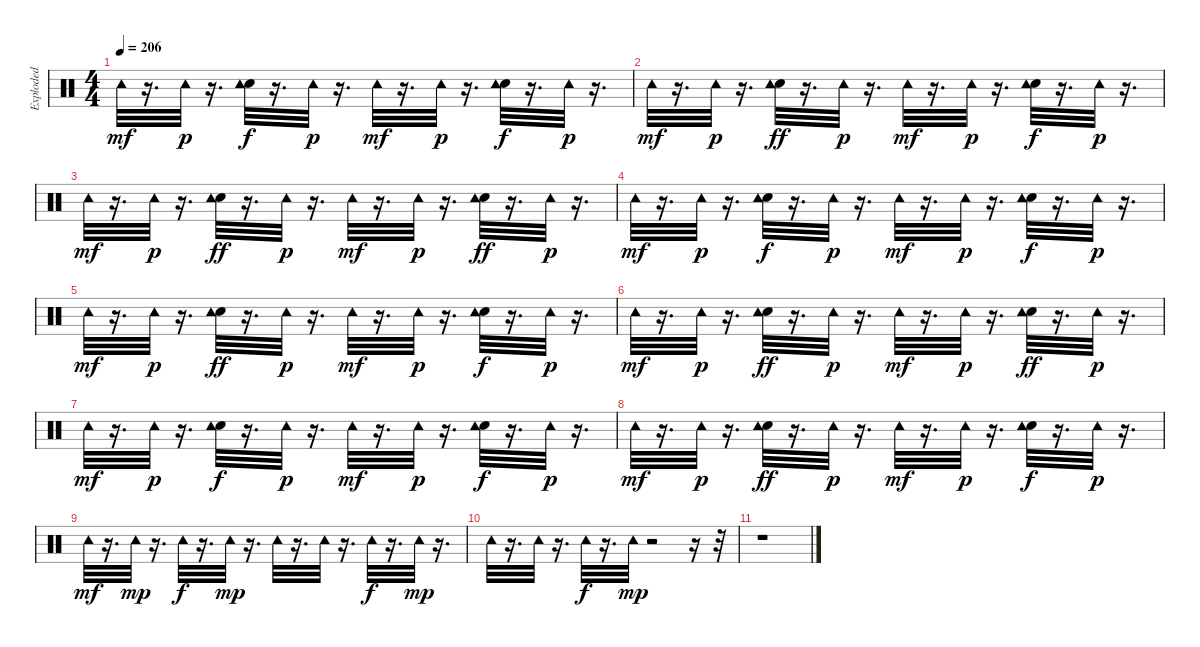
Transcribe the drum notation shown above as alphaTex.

\track ("Exploded" "Exploded") {instrument percussion}
\staff {score}
\articulation defaults
\ts (4 4)
\tempo 206
\clef neutral
\ks c "Tambourine (hit)".32{dy mf}
r.16{d} "Tambourine (hit)".32{dy p} r.16{d} ("Hand Clap (hit)" "Tambourine (hit)").32{dy f} r.16{d} "Tambourine (hit)".32{dy p} r.16{d} "Tambourine (hit)".32{dy mf} r.16{d} "Tambourine (hit)".32{dy p} r.16{d} ("Hand Clap (hit)" "Tambourine (hit)").32{dy f} r.16{d} "Tambourine (hit)".32{dy p} r.16{d} |
"Tambourine (hit)".32{dy mf} r.16{d} "Tambourine (hit)".32{dy p} r.16{d} ("Hand Clap (hit)" "Tambourine (hit)").32{dy ff} r.16{d} "Tambourine (hit)".32{dy p} r.16{d} "Tambourine (hit)".32{dy mf} r.16{d} "Tambourine (hit)".32{dy p} r.16{d} ("Hand Clap (hit)" "Tambourine (hit)").32{dy f} r.16{d} "Tambourine (hit)".32{dy p} r.16{d} |
"Tambourine (hit)".32{dy mf} r.16{d} "Tambourine (hit)".32{dy p} r.16{d} ("Hand Clap (hit)" "Tambourine (hit)").32{dy ff} r.16{d} "Tambourine (hit)".32{dy p} r.16{d} "Tambourine (hit)".32{dy mf} r.16{d} "Tambourine (hit)".32{dy p} r.16{d} ("Hand Clap (hit)" "Tambourine (hit)").32{dy ff} r.16{d} "Tambourine (hit)".32{dy p} r.16{d} |
"Tambourine (hit)".32{dy mf} r.16{d} "Tambourine (hit)".32{dy p} r.16{d} ("Hand Clap (hit)" "Tambourine (hit)").32{dy f} r.16{d} "Tambourine (hit)".32{dy p} r.16{d} "Tambourine (hit)".32{dy mf} r.16{d} "Tambourine (hit)".32{dy p} r.16{d} ("Hand Clap (hit)" "Tambourine (hit)").32{dy f} r.16{d} "Tambourine (hit)".32{dy p} r.16{d} |
"Tambourine (hit)".32{dy mf} r.16{d} "Tambourine (hit)".32{dy p} r.16{d} ("Hand Clap (hit)" "Tambourine (hit)").32{dy ff} r.16{d} "Tambourine (hit)".32{dy p} r.16{d} "Tambourine (hit)".32{dy mf} r.16{d} "Tambourine (hit)".32{dy p} r.16{d} ("Hand Clap (hit)" "Tambourine (hit)").32{dy f} r.16{d} "Tambourine (hit)".32{dy p} r.16{d} |
"Tambourine (hit)".32{dy mf} r.16{d} "Tambourine (hit)".32{dy p} r.16{d} ("Hand Clap (hit)" "Tambourine (hit)").32{dy ff} r.16{d} "Tambourine (hit)".32{dy p} r.16{d} "Tambourine (hit)".32{dy mf} r.16{d} "Tambourine (hit)".32{dy p} r.16{d} ("Hand Clap (hit)" "Tambourine (hit)").32{dy ff} r.16{d} "Tambourine (hit)".32{dy p} r.16{d} |
"Tambourine (hit)".32{dy mf} r.16{d} "Tambourine (hit)".32{dy p} r.16{d} ("Hand Clap (hit)" "Tambourine (hit)").32{dy f} r.16{d} "Tambourine (hit)".32{dy p} r.16{d} "Tambourine (hit)".32{dy mf} r.16{d} "Tambourine (hit)".32{dy p} r.16{d} ("Hand Clap (hit)" "Tambourine (hit)").32{dy f} r.16{d} "Tambourine (hit)".32{dy p} r.16{d} |
"Tambourine (hit)".32{dy mf} r.16{d} "Tambourine (hit)".32{dy p} r.16{d} ("Hand Clap (hit)" "Tambourine (hit)").32{dy ff} r.16{d} "Tambourine (hit)".32{dy p} r.16{d} "Tambourine (hit)".32{dy mf} r.16{d} "Tambourine (hit)".32{dy p} r.16{d} ("Hand Clap (hit)" "Tambourine (hit)").32{dy f} r.16{d} "Tambourine (hit)".32{dy p} r.16{d} |
"Tambourine (hit)".32{dy mf} r.16{d} "Tambourine (hit)".32{dy mp} r.16{d} "Tambourine (hit)".32{dy f} r.16{d} "Tambourine (hit)".32{dy mp} r.16{d} "Tambourine (hit)".32 r.16{d} "Tambourine (hit)".32 r.16{d} "Tambourine (hit)".32{dy f} r.16{d} "Tambourine (hit)".32{dy mp} r.16{d} |
"Tambourine (hit)".32 r.16{d} "Tambourine (hit)".32 r.16{d} "Tambourine (hit)".32{dy f} r.16{d} "Tambourine (hit)".32{dy mp} r.2 r.16 r.32 |
r.1
